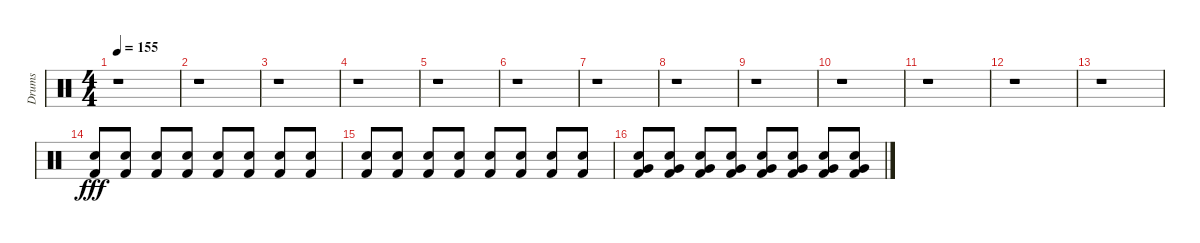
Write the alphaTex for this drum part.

\track ("Drums               " "Drums     ") {instrument percussion}
\staff {score}
\articulation defaults
\ts (4 4)
\tempo 155
\clef neutral
\ks c
r.1{dy fff} |
r.1 |
r.1 |
r.1 |
r.1 |
r.1 |
r.1 |
r.1 |
r.1 |
r.1 |
r.1 |
r.1 |
r.1{volume 0} |
("Electric Snare (hit)" "Kick (hit) 2").8{volume 9} ("Electric Snare (hit)" "Kick (hit) 2").8 ("Electric Snare (hit)" "Kick (hit) 2").8 ("Electric Snare (hit)" "Kick (hit) 2").8 ("Electric Snare (hit)" "Kick (hit) 2").8 ("Electric Snare (hit)" "Kick (hit) 2").8 ("Electric Snare (hit)" "Kick (hit) 2").8 ("Electric Snare (hit)" "Kick (hit) 2").8 |
("Electric Snare (hit)" "Kick (hit) 2").8 ("Electric Snare (hit)" "Kick (hit) 2").8 ("Electric Snare (hit)" "Kick (hit) 2").8 ("Electric Snare (hit)" "Kick (hit) 2").8 ("Electric Snare (hit)" "Kick (hit) 2").8 ("Electric Snare (hit)" "Kick (hit) 2").8 ("Electric Snare (hit)" "Kick (hit) 2").8 ("Electric Snare (hit)" "Kick (hit) 2").8 |
("Very Low Tom (hit)" "Electric Snare (hit)" "Kick (hit) 2").8 ("Very Low Tom (hit)" "Electric Snare (hit)" "Kick (hit) 2").8 ("Very Low Tom (hit)" "Electric Snare (hit)" "Kick (hit) 2").8 ("Very Low Tom (hit)" "Electric Snare (hit)" "Kick (hit) 2").8 ("Very Low Tom (hit)" "Electric Snare (hit)" "Kick (hit) 2").8 ("Very Low Tom (hit)" "Electric Snare (hit)" "Kick (hit) 2").8 ("Very Low Tom (hit)" "Electric Snare (hit)" "Kick (hit) 2").8 ("Very Low Tom (hit)" "Electric Snare (hit)" "Kick (hit) 2").8
